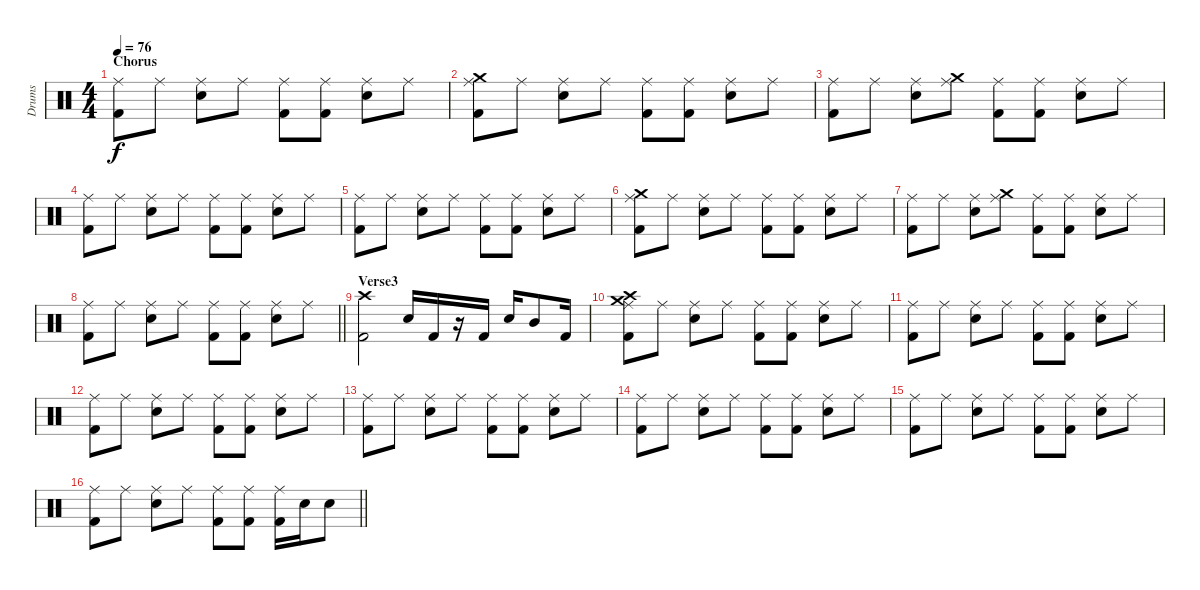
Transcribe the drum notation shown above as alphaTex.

\track ("Drums" "Drums") {instrument percussion}
\staff {score}
\articulation defaults
\ts (4 4)
\section ("" "Chorus")
\tempo 76
\clef neutral
\ks c
("Ride (middle)" "Kick (hit) 2").8{dy f} "Ride (middle)".8 ("Ride (middle)" "Electric Snare (hit)").8 "Ride (middle)".8 ("Ride (middle)" "Kick (hit) 2").8 ("Ride (middle)" "Kick (hit) 2").8 ("Ride (middle)" "Electric Snare (hit)").8 "Ride (middle)".8 |
("Ride (middle)" "Crash medium (hit)" "Kick (hit) 2").8 "Ride (middle)".8 ("Ride (middle)" "Electric Snare (hit)").8 "Ride (middle)".8 ("Ride (middle)" "Kick (hit) 2").8 ("Ride (middle)" "Kick (hit) 2").8 ("Ride (middle)" "Electric Snare (hit)").8 "Ride (middle)".8 |
("Ride (middle)" "Kick (hit) 2").8 "Ride (middle)".8 ("Ride (middle)" "Electric Snare (hit)").8 ("Ride (middle)" "Crash medium (hit)").8 ("Ride (middle)" "Kick (hit) 2").8 ("Ride (middle)" "Kick (hit) 2").8 ("Ride (middle)" "Electric Snare (hit)").8 "Ride (middle)".8 |
("Ride (middle)" "Kick (hit) 2").8 "Ride (middle)".8 ("Ride (middle)" "Electric Snare (hit)").8 "Ride (middle)".8 ("Ride (middle)" "Kick (hit) 2").8 ("Ride (middle)" "Kick (hit) 2").8 ("Ride (middle)" "Electric Snare (hit)").8 "Ride (middle)".8 |
("Ride (middle)" "Kick (hit) 2").8 "Ride (middle)".8 ("Ride (middle)" "Electric Snare (hit)").8 "Ride (middle)".8 ("Ride (middle)" "Kick (hit) 2").8 ("Ride (middle)" "Kick (hit) 2").8 ("Ride (middle)" "Electric Snare (hit)").8 "Ride (middle)".8 |
("Ride (middle)" "Crash medium (hit)" "Kick (hit) 2").8 "Ride (middle)".8 ("Ride (middle)" "Electric Snare (hit)").8 "Ride (middle)".8 ("Ride (middle)" "Kick (hit) 2").8 ("Ride (middle)" "Kick (hit) 2").8 ("Ride (middle)" "Electric Snare (hit)").8 "Ride (middle)".8 |
("Ride (middle)" "Kick (hit) 2").8 "Ride (middle)".8 ("Ride (middle)" "Electric Snare (hit)").8 ("Ride (middle)" "Crash medium (hit)").8 ("Ride (middle)" "Kick (hit) 2").8 ("Ride (middle)" "Kick (hit) 2").8 ("Ride (middle)" "Electric Snare (hit)").8 "Ride (middle)".8 |
\barLineRight lightlight
("Ride (middle)" "Kick (hit) 2").8 "Ride (middle)".8 ("Ride (middle)" "Electric Snare (hit)").8 "Ride (middle)".8 ("Ride (middle)" "Kick (hit) 2").8 ("Ride (middle)" "Kick (hit) 2").8 ("Ride (middle)" "Electric Snare (hit)").8 "Ride (middle)".8 |
\section ("" "Verse3")
("Crash high (hit)" "Kick (hit) 2").2 "Electric Snare (hit)".16 "Kick (hit) 2".16 r.16 "Kick (hit) 2".16 "Electric Snare (hit)".16 "Mid Tom (hit)".8 "Kick (hit) 2".16 |
("Ride (middle)" "Crash high (hit)" "Crash medium (hit)" "Kick (hit) 2").8 "Ride (middle)".8 ("Ride (middle)" "Electric Snare (hit)").8 "Ride (middle)".8 ("Ride (middle)" "Kick (hit) 2").8 ("Ride (middle)" "Kick (hit) 2").8 ("Ride (middle)" "Electric Snare (hit)").8 "Ride (middle)".8 |
("Ride (middle)" "Kick (hit) 2").8 "Ride (middle)".8 ("Ride (middle)" "Electric Snare (hit)").8 "Ride (middle)".8 ("Ride (middle)" "Kick (hit) 2").8 ("Ride (middle)" "Kick (hit) 2").8 ("Ride (middle)" "Electric Snare (hit)").8 "Ride (middle)".8 |
("Ride (middle)" "Kick (hit) 2").8 "Ride (middle)".8 ("Ride (middle)" "Electric Snare (hit)").8 "Ride (middle)".8 ("Ride (middle)" "Kick (hit) 2").8 ("Ride (middle)" "Kick (hit) 2").8 ("Ride (middle)" "Electric Snare (hit)").8 "Ride (middle)".8 |
("Ride (middle)" "Kick (hit) 2").8 "Ride (middle)".8 ("Ride (middle)" "Electric Snare (hit)").8 "Ride (middle)".8 ("Ride (middle)" "Kick (hit) 2").8 ("Ride (middle)" "Kick (hit) 2").8 ("Ride (middle)" "Electric Snare (hit)").8 "Ride (middle)".8 |
("Ride (middle)" "Kick (hit) 2").8 "Ride (middle)".8 ("Ride (middle)" "Electric Snare (hit)").8 "Ride (middle)".8 ("Ride (middle)" "Kick (hit) 2").8 ("Ride (middle)" "Kick (hit) 2").8 ("Ride (middle)" "Electric Snare (hit)").8 "Ride (middle)".8 |
("Ride (middle)" "Kick (hit) 2").8 "Ride (middle)".8 ("Ride (middle)" "Electric Snare (hit)").8 "Ride (middle)".8 ("Ride (middle)" "Kick (hit) 2").8 ("Ride (middle)" "Kick (hit) 2").8 ("Ride (middle)" "Electric Snare (hit)").8 "Ride (middle)".8 |
\barLineRight lightlight
("Ride (middle)" "Kick (hit) 2").8 "Ride (middle)".8 ("Ride (middle)" "Electric Snare (hit)").8 "Ride (middle)".8 ("Ride (middle)" "Kick (hit) 2").8 ("Ride (middle)" "Kick (hit) 2").8 ("Ride (middle)" "Kick (hit) 2").16 "Electric Snare (hit)".16 "Electric Snare (hit)".8
